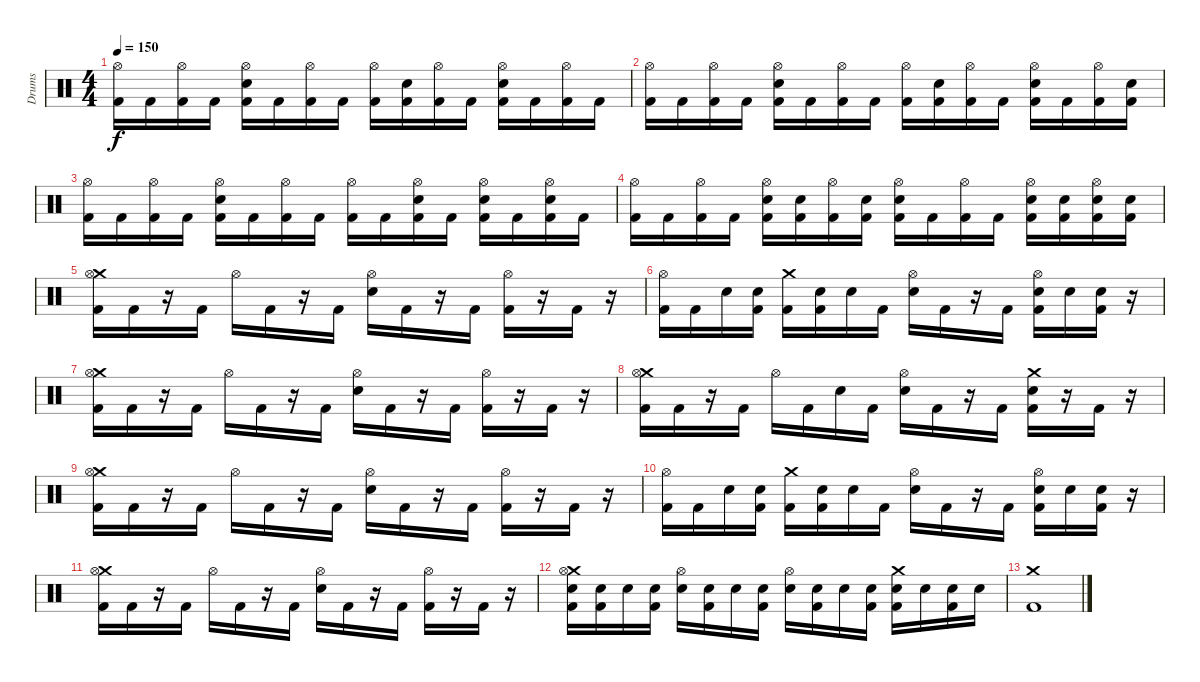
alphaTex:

\track ("Drums" "Drums") {instrument percussion}
\staff {score}
\articulation defaults
\ts (4 4)
\tempo 150
\clef neutral
\ks c
("Hi-Hat (open)" "Kick (hit) 2").16{dy f} "Kick (hit) 2".16 ("Hi-Hat (open)" "Kick (hit) 2").16 "Kick (hit) 2".16 ("Hi-Hat (open)" "Electric Snare (hit)" "Kick (hit) 2").16 "Kick (hit) 2".16 ("Hi-Hat (open)" "Kick (hit) 2").16 "Kick (hit) 2".16 ("Hi-Hat (open)" "Kick (hit) 2").16 ("Electric Snare (hit)" "Kick (hit) 2").16 ("Hi-Hat (open)" "Kick (hit) 2").16 "Kick (hit) 2".16 ("Hi-Hat (open)" "Electric Snare (hit)" "Kick (hit) 2").16 "Kick (hit) 2".16 ("Hi-Hat (open)" "Kick (hit) 2").16 "Kick (hit) 2".16 |
("Hi-Hat (open)" "Kick (hit) 2").16 "Kick (hit) 2".16 ("Hi-Hat (open)" "Kick (hit) 2").16 "Kick (hit) 2".16 ("Hi-Hat (open)" "Electric Snare (hit)" "Kick (hit) 2").16 "Kick (hit) 2".16 ("Hi-Hat (open)" "Kick (hit) 2").16 "Kick (hit) 2".16 ("Hi-Hat (open)" "Kick (hit) 2").16 ("Electric Snare (hit)" "Kick (hit) 2").16 ("Hi-Hat (open)" "Kick (hit) 2").16 "Kick (hit) 2".16 ("Hi-Hat (open)" "Electric Snare (hit)" "Kick (hit) 2").16 "Kick (hit) 2".16 ("Hi-Hat (open)" "Kick (hit) 2").16 ("Electric Snare (hit)" "Kick (hit) 2").16 |
("Hi-Hat (open)" "Kick (hit) 2").16 "Kick (hit) 2".16 ("Hi-Hat (open)" "Kick (hit) 2").16 "Kick (hit) 2".16 ("Hi-Hat (open)" "Electric Snare (hit)" "Kick (hit) 2").16 "Kick (hit) 2".16 ("Hi-Hat (open)" "Kick (hit) 2").16 "Kick (hit) 2".16 ("Hi-Hat (open)" "Kick (hit) 2").16 "Kick (hit) 2".16 ("Hi-Hat (open)" "Electric Snare (hit)" "Kick (hit) 2").16 "Kick (hit) 2".16 ("Hi-Hat (open)" "Electric Snare (hit)" "Kick (hit) 2").16 "Kick (hit) 2".16 ("Hi-Hat (open)" "Electric Snare (hit)" "Kick (hit) 2").16 "Kick (hit) 2".16 |
("Hi-Hat (open)" "Kick (hit) 2").16 "Kick (hit) 2".16 ("Hi-Hat (open)" "Kick (hit) 2").16 "Kick (hit) 2".16 ("Hi-Hat (open)" "Electric Snare (hit)" "Kick (hit) 2").16 ("Electric Snare (hit)" "Kick (hit) 2").16 ("Hi-Hat (open)" "Kick (hit) 2").16 ("Electric Snare (hit)" "Kick (hit) 2").16 ("Hi-Hat (open)" "Electric Snare (hit)" "Kick (hit) 2").16 "Kick (hit) 2".16 ("Hi-Hat (open)" "Kick (hit) 2").16 "Kick (hit) 2".16 ("Hi-Hat (open)" "Electric Snare (hit)" "Kick (hit) 2").16 ("Electric Snare (hit)" "Kick (hit) 2").16 ("Hi-Hat (open)" "Electric Snare (hit)" "Kick (hit) 2").16 ("Electric Snare (hit)" "Kick (hit) 2").16 |
("Crash medium (hit)" "Hi-Hat (open)" "Kick (hit) 2").16 "Kick (hit) 2".16 r.16 "Kick (hit) 2".16 "Hi-Hat (open)".16 "Kick (hit) 2".16 r.16 "Kick (hit) 2".16 ("Hi-Hat (open)" "Electric Snare (hit)").16 "Kick (hit) 2".16 r.16 "Kick (hit) 2".16 ("Hi-Hat (open)" "Kick (hit) 2").16 r.16 "Kick (hit) 2".16 r.16 |
("Hi-Hat (open)" "Kick (hit) 2").16 "Kick (hit) 2".16 "Electric Snare (hit)".16 ("Electric Snare (hit)" "Kick (hit) 2").16 ("Crash medium (hit)" "Kick (hit) 2").16 ("Electric Snare (hit)" "Kick (hit) 2").16 "Electric Snare (hit)".16 "Kick (hit) 2".16 ("Hi-Hat (open)" "Electric Snare (hit)").16 "Kick (hit) 2".16 r.16 "Kick (hit) 2".16 ("Hi-Hat (open)" "Electric Snare (hit)" "Kick (hit) 2").16 "Electric Snare (hit)".16 ("Electric Snare (hit)" "Kick (hit) 2").16 r.16 |
("Crash medium (hit)" "Hi-Hat (open)" "Kick (hit) 2").16 "Kick (hit) 2".16 r.16 "Kick (hit) 2".16 "Hi-Hat (open)".16 "Kick (hit) 2".16 r.16 "Kick (hit) 2".16 ("Hi-Hat (open)" "Electric Snare (hit)").16 "Kick (hit) 2".16 r.16 "Kick (hit) 2".16 ("Hi-Hat (open)" "Kick (hit) 2").16 r.16 "Kick (hit) 2".16 r.16 |
("Crash medium (hit)" "Hi-Hat (open)" "Kick (hit) 2").16 "Kick (hit) 2".16 r.16 "Kick (hit) 2".16 "Hi-Hat (open)".16 "Kick (hit) 2".16 "Electric Snare (hit)".16 "Kick (hit) 2".16 ("Hi-Hat (open)" "Electric Snare (hit)").16 "Kick (hit) 2".16 r.16 "Kick (hit) 2".16 ("Crash medium (hit)" "Electric Snare (hit)" "Kick (hit) 2").16 r.16 "Kick (hit) 2".16 r.16 |
("Crash medium (hit)" "Hi-Hat (open)" "Kick (hit) 2").16 "Kick (hit) 2".16 r.16 "Kick (hit) 2".16 "Hi-Hat (open)".16 "Kick (hit) 2".16 r.16 "Kick (hit) 2".16 ("Hi-Hat (open)" "Electric Snare (hit)").16 "Kick (hit) 2".16 r.16 "Kick (hit) 2".16 ("Hi-Hat (open)" "Kick (hit) 2").16 r.16 "Kick (hit) 2".16 r.16 |
("Hi-Hat (open)" "Kick (hit) 2").16 "Kick (hit) 2".16 "Electric Snare (hit)".16 ("Electric Snare (hit)" "Kick (hit) 2").16 ("Crash medium (hit)" "Kick (hit) 2").16 ("Electric Snare (hit)" "Kick (hit) 2").16 "Electric Snare (hit)".16 "Kick (hit) 2".16 ("Hi-Hat (open)" "Electric Snare (hit)").16 "Kick (hit) 2".16 r.16 "Kick (hit) 2".16 ("Hi-Hat (open)" "Electric Snare (hit)" "Kick (hit) 2").16 "Electric Snare (hit)".16 ("Electric Snare (hit)" "Kick (hit) 2").16 r.16 |
("Crash medium (hit)" "Hi-Hat (open)" "Kick (hit) 2").16 "Kick (hit) 2".16 r.16 "Kick (hit) 2".16 "Hi-Hat (open)".16 "Kick (hit) 2".16 r.16 "Kick (hit) 2".16 ("Hi-Hat (open)" "Electric Snare (hit)").16 "Kick (hit) 2".16 r.16 "Kick (hit) 2".16 ("Hi-Hat (open)" "Kick (hit) 2").16 r.16 "Kick (hit) 2".16 r.16 |
("Crash medium (hit)" "Hi-Hat (open)" "Electric Snare (hit)" "Kick (hit) 2").16 ("Electric Snare (hit)" "Kick (hit) 2").16 "Electric Snare (hit)".16 ("Electric Snare (hit)" "Kick (hit) 2").16 ("Hi-Hat (open)" "Electric Snare (hit)").16 ("Electric Snare (hit)" "Kick (hit) 2").16 "Electric Snare (hit)".16 ("Electric Snare (hit)" "Kick (hit) 2").16 ("Hi-Hat (open)" "Electric Snare (hit)").16 ("Electric Snare (hit)" "Kick (hit) 2").16 "Electric Snare (hit)".16 ("Electric Snare (hit)" "Kick (hit) 2").16 ("Crash medium (hit)" "Electric Snare (hit)" "Kick (hit) 2").16 "Electric Snare (hit)".16 ("Electric Snare (hit)" "Kick (hit) 2").16 "Electric Snare (hit)".16 |
("Crash medium (hit)" "Kick (hit) 2").1
